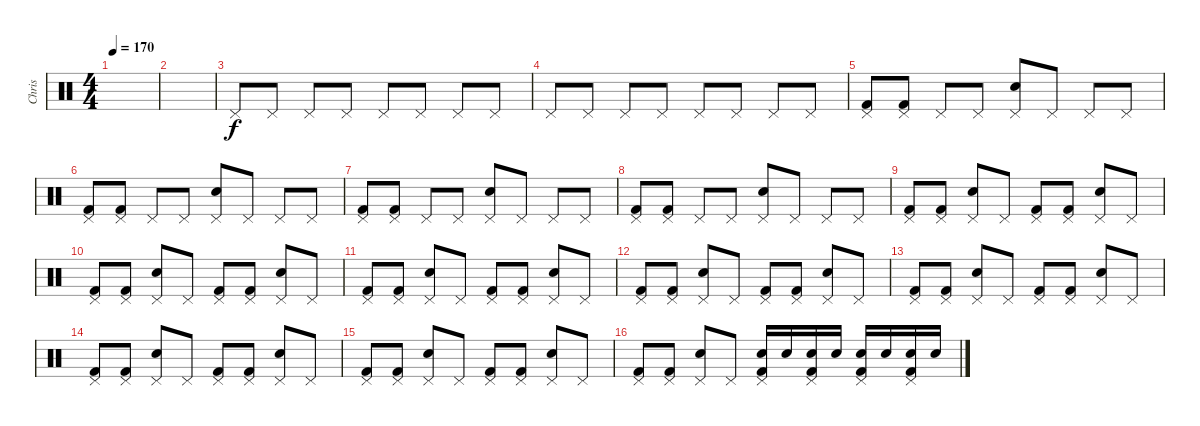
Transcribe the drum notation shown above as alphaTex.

\track ("Chris" "Chris") {instrument percussion}
\staff {score}
\articulation defaults
\ts (4 4)
\tempo 170
\clef neutral
\ks c
|
|
"Pedal Hi-Hat (hit)".8 "Pedal Hi-Hat (hit)".8 "Pedal Hi-Hat (hit)".8 "Pedal Hi-Hat (hit)".8 "Pedal Hi-Hat (hit)".8 "Pedal Hi-Hat (hit)".8 "Pedal Hi-Hat (hit)".8 "Pedal Hi-Hat (hit)".8 |
"Pedal Hi-Hat (hit)".8 "Pedal Hi-Hat (hit)".8 "Pedal Hi-Hat (hit)".8 "Pedal Hi-Hat (hit)".8 "Pedal Hi-Hat (hit)".8 "Pedal Hi-Hat (hit)".8 "Pedal Hi-Hat (hit)".8 "Pedal Hi-Hat (hit)".8 |
("Pedal Hi-Hat (hit)" "Kick (hit) 2").8 ("Pedal Hi-Hat (hit)" "Kick (hit) 2").8 "Pedal Hi-Hat (hit)".8 "Pedal Hi-Hat (hit)".8 ("Pedal Hi-Hat (hit)" "Electric Snare (hit)").8 "Pedal Hi-Hat (hit)".8 "Pedal Hi-Hat (hit)".8 "Pedal Hi-Hat (hit)".8 |
("Pedal Hi-Hat (hit)" "Kick (hit) 2").8 ("Pedal Hi-Hat (hit)" "Kick (hit) 2").8 "Pedal Hi-Hat (hit)".8 "Pedal Hi-Hat (hit)".8 ("Pedal Hi-Hat (hit)" "Electric Snare (hit)").8 "Pedal Hi-Hat (hit)".8 "Pedal Hi-Hat (hit)".8 "Pedal Hi-Hat (hit)".8 |
("Pedal Hi-Hat (hit)" "Kick (hit) 2").8 ("Pedal Hi-Hat (hit)" "Kick (hit) 2").8 "Pedal Hi-Hat (hit)".8 "Pedal Hi-Hat (hit)".8 ("Pedal Hi-Hat (hit)" "Electric Snare (hit)").8 "Pedal Hi-Hat (hit)".8 "Pedal Hi-Hat (hit)".8 "Pedal Hi-Hat (hit)".8 |
("Pedal Hi-Hat (hit)" "Kick (hit) 2").8 ("Pedal Hi-Hat (hit)" "Kick (hit) 2").8 "Pedal Hi-Hat (hit)".8 "Pedal Hi-Hat (hit)".8 ("Pedal Hi-Hat (hit)" "Electric Snare (hit)").8 "Pedal Hi-Hat (hit)".8 "Pedal Hi-Hat (hit)".8 "Pedal Hi-Hat (hit)".8 |
("Pedal Hi-Hat (hit)" "Kick (hit) 2").8 ("Pedal Hi-Hat (hit)" "Kick (hit) 2").8 ("Pedal Hi-Hat (hit)" "Electric Snare (hit)").8 "Pedal Hi-Hat (hit)".8 ("Pedal Hi-Hat (hit)" "Kick (hit) 2").8 ("Pedal Hi-Hat (hit)" "Kick (hit) 2").8 ("Pedal Hi-Hat (hit)" "Electric Snare (hit)").8 "Pedal Hi-Hat (hit)".8 |
("Pedal Hi-Hat (hit)" "Kick (hit) 2").8 ("Pedal Hi-Hat (hit)" "Kick (hit) 2").8 ("Pedal Hi-Hat (hit)" "Electric Snare (hit)").8 "Pedal Hi-Hat (hit)".8 ("Pedal Hi-Hat (hit)" "Kick (hit) 2").8 ("Pedal Hi-Hat (hit)" "Kick (hit) 2").8 ("Pedal Hi-Hat (hit)" "Electric Snare (hit)").8 "Pedal Hi-Hat (hit)".8 |
("Pedal Hi-Hat (hit)" "Kick (hit) 2").8 ("Pedal Hi-Hat (hit)" "Kick (hit) 2").8 ("Pedal Hi-Hat (hit)" "Electric Snare (hit)").8 "Pedal Hi-Hat (hit)".8 ("Pedal Hi-Hat (hit)" "Kick (hit) 2").8 ("Pedal Hi-Hat (hit)" "Kick (hit) 2").8 ("Pedal Hi-Hat (hit)" "Electric Snare (hit)").8 "Pedal Hi-Hat (hit)".8 |
("Pedal Hi-Hat (hit)" "Kick (hit) 2").8 ("Pedal Hi-Hat (hit)" "Kick (hit) 2").8 ("Pedal Hi-Hat (hit)" "Electric Snare (hit)").8 "Pedal Hi-Hat (hit)".8 ("Pedal Hi-Hat (hit)" "Kick (hit) 2").8 ("Pedal Hi-Hat (hit)" "Kick (hit) 2").8 ("Pedal Hi-Hat (hit)" "Electric Snare (hit)").8 "Pedal Hi-Hat (hit)".8 |
("Pedal Hi-Hat (hit)" "Kick (hit) 2").8 ("Pedal Hi-Hat (hit)" "Kick (hit) 2").8 ("Pedal Hi-Hat (hit)" "Electric Snare (hit)").8 "Pedal Hi-Hat (hit)".8 ("Pedal Hi-Hat (hit)" "Kick (hit) 2").8 ("Pedal Hi-Hat (hit)" "Kick (hit) 2").8 ("Pedal Hi-Hat (hit)" "Electric Snare (hit)").8 "Pedal Hi-Hat (hit)".8 |
("Pedal Hi-Hat (hit)" "Kick (hit) 2").8 ("Pedal Hi-Hat (hit)" "Kick (hit) 2").8 ("Pedal Hi-Hat (hit)" "Electric Snare (hit)").8 "Pedal Hi-Hat (hit)".8 ("Pedal Hi-Hat (hit)" "Kick (hit) 2").8 ("Pedal Hi-Hat (hit)" "Kick (hit) 2").8 ("Pedal Hi-Hat (hit)" "Electric Snare (hit)").8 "Pedal Hi-Hat (hit)".8 |
("Pedal Hi-Hat (hit)" "Kick (hit) 2").8 ("Pedal Hi-Hat (hit)" "Kick (hit) 2").8 ("Pedal Hi-Hat (hit)" "Electric Snare (hit)").8 "Pedal Hi-Hat (hit)".8 ("Pedal Hi-Hat (hit)" "Kick (hit) 2").8 ("Pedal Hi-Hat (hit)" "Kick (hit) 2").8 ("Pedal Hi-Hat (hit)" "Electric Snare (hit)").8 "Pedal Hi-Hat (hit)".8 |
("Pedal Hi-Hat (hit)" "Kick (hit) 2").8 ("Pedal Hi-Hat (hit)" "Kick (hit) 2").8 ("Pedal Hi-Hat (hit)" "Electric Snare (hit)").8 "Pedal Hi-Hat (hit)".8 ("Pedal Hi-Hat (hit)" "Electric Snare (hit)" "Kick (hit) 2").16 "Electric Snare (hit)".16 ("Pedal Hi-Hat (hit)" "Electric Snare (hit)" "Kick (hit) 2").16 "Electric Snare (hit)".16 ("Pedal Hi-Hat (hit)" "Electric Snare (hit)" "Kick (hit) 2").16 "Electric Snare (hit)".16 ("Pedal Hi-Hat (hit)" "Electric Snare (hit)" "Kick (hit) 2").16 "Electric Snare (hit)".16
